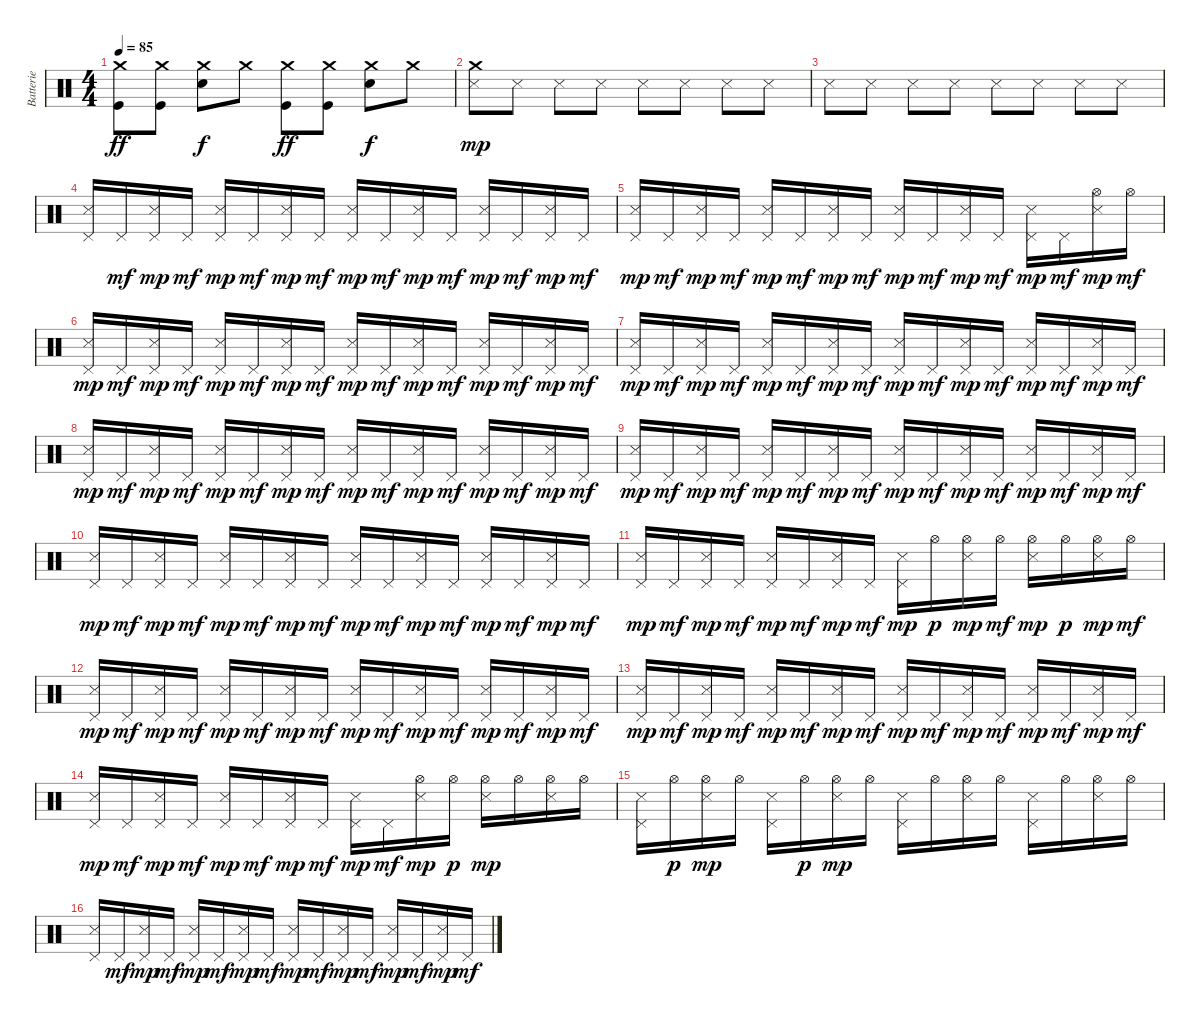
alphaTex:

\track ("Batterie" "Batterie") {instrument percussion}
\staff {score}
\articulation defaults
\ts (4 4)
\tempo 85
\clef neutral
\ks c
("Crash medium (hit)" "Kick (hit)").8{dy ff} ("Crash medium (hit)" "Kick (hit)").8 ("Crash medium (hit)" "Snare (hit) 2").8{dy f} "Crash medium (hit)".8 ("Crash medium (hit)" "Kick (hit)").8{dy ff} ("Crash medium (hit)" "Kick (hit)").8 ("Crash medium (hit)" "Snare (hit) 2").8{dy f} "Crash medium (hit)".8 |
("Crash medium (hit)" "Snare (side stick) 3").8{dy mp} "Snare (side stick) 3".8 "Snare (side stick) 3".8 "Snare (side stick) 3".8 "Snare (side stick) 3".8 "Snare (side stick) 3".8 "Snare (side stick) 3".8 "Snare (side stick) 3".8 |
"Snare (side stick) 3".8 "Snare (side stick) 3".8 "Snare (side stick) 3".8 "Snare (side stick) 3".8 "Snare (side stick) 3".8 "Snare (side stick) 3".8 "Snare (side stick) 3".8 "Snare (side stick) 3".8 |
("Pedal Hi-Hat (hit)" "Snare (side stick) 3").16 "Pedal Hi-Hat (hit)".16{dy mf} ("Pedal Hi-Hat (hit)" "Snare (side stick) 3").16{dy mp} "Pedal Hi-Hat (hit)".16{dy mf} ("Pedal Hi-Hat (hit)" "Snare (side stick) 3").16{dy mp} "Pedal Hi-Hat (hit)".16{dy mf} ("Pedal Hi-Hat (hit)" "Snare (side stick) 3").16{dy mp} "Pedal Hi-Hat (hit)".16{dy mf} ("Pedal Hi-Hat (hit)" "Snare (side stick) 3").16{dy mp} "Pedal Hi-Hat (hit)".16{dy mf} ("Pedal Hi-Hat (hit)" "Snare (side stick) 3").16{dy mp} "Pedal Hi-Hat (hit)".16{dy mf} ("Pedal Hi-Hat (hit)" "Snare (side stick) 3").16{dy mp} "Pedal Hi-Hat (hit)".16{dy mf} ("Pedal Hi-Hat (hit)" "Snare (side stick) 3").16{dy mp} "Pedal Hi-Hat (hit)".16{dy mf} |
("Pedal Hi-Hat (hit)" "Snare (side stick) 3").16{dy mp} "Pedal Hi-Hat (hit)".16{dy mf} ("Pedal Hi-Hat (hit)" "Snare (side stick) 3").16{dy mp} "Pedal Hi-Hat (hit)".16{dy mf} ("Pedal Hi-Hat (hit)" "Snare (side stick) 3").16{dy mp} "Pedal Hi-Hat (hit)".16{dy mf} ("Pedal Hi-Hat (hit)" "Snare (side stick) 3").16{dy mp} "Pedal Hi-Hat (hit)".16{dy mf} ("Pedal Hi-Hat (hit)" "Snare (side stick) 3").16{dy mp} "Pedal Hi-Hat (hit)".16{dy mf} ("Pedal Hi-Hat (hit)" "Snare (side stick) 3").16{dy mp} "Pedal Hi-Hat (hit)".16{dy mf} ("Pedal Hi-Hat (hit)" "Snare (side stick) 3").16{dy mp} "Pedal Hi-Hat (hit)".16{dy mf} ("Hi-Hat (open)" "Snare (side stick) 3").16{dy mp} "Hi-Hat (open)".16{dy mf} |
("Pedal Hi-Hat (hit)" "Snare (side stick) 3").16{dy mp} "Pedal Hi-Hat (hit)".16{dy mf} ("Pedal Hi-Hat (hit)" "Snare (side stick) 3").16{dy mp} "Pedal Hi-Hat (hit)".16{dy mf} ("Pedal Hi-Hat (hit)" "Snare (side stick) 3").16{dy mp} "Pedal Hi-Hat (hit)".16{dy mf} ("Pedal Hi-Hat (hit)" "Snare (side stick) 3").16{dy mp} "Pedal Hi-Hat (hit)".16{dy mf} ("Pedal Hi-Hat (hit)" "Snare (side stick) 3").16{dy mp} "Pedal Hi-Hat (hit)".16{dy mf} ("Pedal Hi-Hat (hit)" "Snare (side stick) 3").16{dy mp} "Pedal Hi-Hat (hit)".16{dy mf} ("Pedal Hi-Hat (hit)" "Snare (side stick) 3").16{dy mp} "Pedal Hi-Hat (hit)".16{dy mf} ("Pedal Hi-Hat (hit)" "Snare (side stick) 3").16{dy mp} "Pedal Hi-Hat (hit)".16{dy mf} |
("Pedal Hi-Hat (hit)" "Snare (side stick) 3").16{dy mp} "Pedal Hi-Hat (hit)".16{dy mf} ("Pedal Hi-Hat (hit)" "Snare (side stick) 3").16{dy mp} "Pedal Hi-Hat (hit)".16{dy mf} ("Pedal Hi-Hat (hit)" "Snare (side stick) 3").16{dy mp} "Pedal Hi-Hat (hit)".16{dy mf} ("Pedal Hi-Hat (hit)" "Snare (side stick) 3").16{dy mp} "Pedal Hi-Hat (hit)".16{dy mf} ("Pedal Hi-Hat (hit)" "Snare (side stick) 3").16{dy mp} "Pedal Hi-Hat (hit)".16{dy mf} ("Pedal Hi-Hat (hit)" "Snare (side stick) 3").16{dy mp} "Pedal Hi-Hat (hit)".16{dy mf} ("Pedal Hi-Hat (hit)" "Snare (side stick) 3").16{dy mp} "Pedal Hi-Hat (hit)".16{dy mf} ("Pedal Hi-Hat (hit)" "Snare (side stick) 3").16{dy mp} "Pedal Hi-Hat (hit)".16{dy mf} |
("Pedal Hi-Hat (hit)" "Snare (side stick) 3").16{dy mp} "Pedal Hi-Hat (hit)".16{dy mf} ("Pedal Hi-Hat (hit)" "Snare (side stick) 3").16{dy mp} "Pedal Hi-Hat (hit)".16{dy mf} ("Pedal Hi-Hat (hit)" "Snare (side stick) 3").16{dy mp} "Pedal Hi-Hat (hit)".16{dy mf} ("Pedal Hi-Hat (hit)" "Snare (side stick) 3").16{dy mp} "Pedal Hi-Hat (hit)".16{dy mf} ("Pedal Hi-Hat (hit)" "Snare (side stick) 3").16{dy mp} "Pedal Hi-Hat (hit)".16{dy mf} ("Pedal Hi-Hat (hit)" "Snare (side stick) 3").16{dy mp} "Pedal Hi-Hat (hit)".16{dy mf} ("Pedal Hi-Hat (hit)" "Snare (side stick) 3").16{dy mp} "Pedal Hi-Hat (hit)".16{dy mf} ("Pedal Hi-Hat (hit)" "Snare (side stick) 3").16{dy mp} "Pedal Hi-Hat (hit)".16{dy mf} |
("Pedal Hi-Hat (hit)" "Snare (side stick) 3").16{dy mp} "Pedal Hi-Hat (hit)".16{dy mf} ("Pedal Hi-Hat (hit)" "Snare (side stick) 3").16{dy mp} "Pedal Hi-Hat (hit)".16{dy mf} ("Pedal Hi-Hat (hit)" "Snare (side stick) 3").16{dy mp} "Pedal Hi-Hat (hit)".16{dy mf} ("Pedal Hi-Hat (hit)" "Snare (side stick) 3").16{dy mp} "Pedal Hi-Hat (hit)".16{dy mf} ("Pedal Hi-Hat (hit)" "Snare (side stick) 3").16{dy mp} "Pedal Hi-Hat (hit)".16{dy mf} ("Pedal Hi-Hat (hit)" "Snare (side stick) 3").16{dy mp} "Pedal Hi-Hat (hit)".16{dy mf} ("Pedal Hi-Hat (hit)" "Snare (side stick) 3").16{dy mp} "Pedal Hi-Hat (hit)".16{dy mf} ("Pedal Hi-Hat (hit)" "Snare (side stick) 3").16{dy mp} "Pedal Hi-Hat (hit)".16{dy mf} |
("Pedal Hi-Hat (hit)" "Snare (side stick) 3").16{dy mp} "Pedal Hi-Hat (hit)".16{dy mf} ("Pedal Hi-Hat (hit)" "Snare (side stick) 3").16{dy mp} "Pedal Hi-Hat (hit)".16{dy mf} ("Pedal Hi-Hat (hit)" "Snare (side stick) 3").16{dy mp} "Pedal Hi-Hat (hit)".16{dy mf} ("Pedal Hi-Hat (hit)" "Snare (side stick) 3").16{dy mp} "Pedal Hi-Hat (hit)".16{dy mf} ("Pedal Hi-Hat (hit)" "Snare (side stick) 3").16{dy mp} "Pedal Hi-Hat (hit)".16{dy mf} ("Pedal Hi-Hat (hit)" "Snare (side stick) 3").16{dy mp} "Pedal Hi-Hat (hit)".16{dy mf} ("Pedal Hi-Hat (hit)" "Snare (side stick) 3").16{dy mp} "Pedal Hi-Hat (hit)".16{dy mf} ("Pedal Hi-Hat (hit)" "Snare (side stick) 3").16{dy mp} "Pedal Hi-Hat (hit)".16{dy mf} |
("Pedal Hi-Hat (hit)" "Snare (side stick) 3").16{dy mp} "Pedal Hi-Hat (hit)".16{dy mf} ("Pedal Hi-Hat (hit)" "Snare (side stick) 3").16{dy mp} "Pedal Hi-Hat (hit)".16{dy mf} ("Pedal Hi-Hat (hit)" "Snare (side stick) 3").16{dy mp} "Pedal Hi-Hat (hit)".16{dy mf} ("Pedal Hi-Hat (hit)" "Snare (side stick) 3").16{dy mp} "Pedal Hi-Hat (hit)".16{dy mf} ("Pedal Hi-Hat (hit)" "Snare (side stick) 3").16{dy mp} "Hi-Hat (open)".16{dy p} ("Hi-Hat (open)" "Snare (side stick) 3").16{dy mp} "Hi-Hat (open)".16{dy mf} ("Hi-Hat (open)" "Snare (side stick) 3").16{dy mp} "Hi-Hat (open)".16{dy p} ("Hi-Hat (open)" "Snare (side stick) 3").16{dy mp} "Hi-Hat (open)".16{dy mf} |
("Pedal Hi-Hat (hit)" "Snare (side stick) 3").16{dy mp} "Pedal Hi-Hat (hit)".16{dy mf} ("Pedal Hi-Hat (hit)" "Snare (side stick) 3").16{dy mp} "Pedal Hi-Hat (hit)".16{dy mf} ("Pedal Hi-Hat (hit)" "Snare (side stick) 3").16{dy mp} "Pedal Hi-Hat (hit)".16{dy mf} ("Pedal Hi-Hat (hit)" "Snare (side stick) 3").16{dy mp} "Pedal Hi-Hat (hit)".16{dy mf} ("Pedal Hi-Hat (hit)" "Snare (side stick) 3").16{dy mp} "Pedal Hi-Hat (hit)".16{dy mf} ("Pedal Hi-Hat (hit)" "Snare (side stick) 3").16{dy mp} "Pedal Hi-Hat (hit)".16{dy mf} ("Pedal Hi-Hat (hit)" "Snare (side stick) 3").16{dy mp} "Pedal Hi-Hat (hit)".16{dy mf} ("Pedal Hi-Hat (hit)" "Snare (side stick) 3").16{dy mp} "Pedal Hi-Hat (hit)".16{dy mf} |
("Pedal Hi-Hat (hit)" "Snare (side stick) 3").16{dy mp} "Pedal Hi-Hat (hit)".16{dy mf} ("Pedal Hi-Hat (hit)" "Snare (side stick) 3").16{dy mp} "Pedal Hi-Hat (hit)".16{dy mf} ("Pedal Hi-Hat (hit)" "Snare (side stick) 3").16{dy mp} "Pedal Hi-Hat (hit)".16{dy mf} ("Pedal Hi-Hat (hit)" "Snare (side stick) 3").16{dy mp} "Pedal Hi-Hat (hit)".16{dy mf} ("Pedal Hi-Hat (hit)" "Snare (side stick) 3").16{dy mp} "Pedal Hi-Hat (hit)".16{dy mf} ("Pedal Hi-Hat (hit)" "Snare (side stick) 3").16{dy mp} "Pedal Hi-Hat (hit)".16{dy mf} ("Pedal Hi-Hat (hit)" "Snare (side stick) 3").16{dy mp} "Pedal Hi-Hat (hit)".16{dy mf} ("Pedal Hi-Hat (hit)" "Snare (side stick) 3").16{dy mp} "Pedal Hi-Hat (hit)".16{dy mf} |
("Pedal Hi-Hat (hit)" "Snare (side stick) 3").16{dy mp} "Pedal Hi-Hat (hit)".16{dy mf} ("Pedal Hi-Hat (hit)" "Snare (side stick) 3").16{dy mp} "Pedal Hi-Hat (hit)".16{dy mf} ("Pedal Hi-Hat (hit)" "Snare (side stick) 3").16{dy mp} "Pedal Hi-Hat (hit)".16{dy mf} ("Pedal Hi-Hat (hit)" "Snare (side stick) 3").16{dy mp} "Pedal Hi-Hat (hit)".16{dy mf} ("Pedal Hi-Hat (hit)" "Snare (side stick) 3").16{dy mp} "Pedal Hi-Hat (hit)".16{dy mf} ("Hi-Hat (open)" "Snare (side stick) 3").16{dy mp} "Hi-Hat (open)".16{dy p} ("Hi-Hat (open)" "Snare (side stick) 3").16{dy mp} "Hi-Hat (open)".16 ("Hi-Hat (open)" "Snare (side stick) 3").16 "Hi-Hat (open)".16 |
("Pedal Hi-Hat (hit)" "Snare (side stick) 3").16 "Hi-Hat (open)".16{dy p} ("Hi-Hat (open)" "Snare (side stick) 3").16{dy mp} "Hi-Hat (open)".16 ("Pedal Hi-Hat (hit)" "Snare (side stick) 3").16 "Hi-Hat (open)".16{dy p} ("Hi-Hat (open)" "Snare (side stick) 3").16{dy mp} "Hi-Hat (open)".16 ("Pedal Hi-Hat (hit)" "Snare (side stick) 3").16 "Hi-Hat (open)".16 ("Hi-Hat (open)" "Snare (side stick) 3").16 "Hi-Hat (open)".16 ("Pedal Hi-Hat (hit)" "Snare (side stick) 3").16 "Hi-Hat (open)".16 ("Hi-Hat (open)" "Snare (side stick) 3").16 "Hi-Hat (open)".16 |
("Pedal Hi-Hat (hit)" "Snare (side stick) 3").16 "Pedal Hi-Hat (hit)".16{dy mf} ("Pedal Hi-Hat (hit)" "Snare (side stick) 3").16{dy mp} "Pedal Hi-Hat (hit)".16{dy mf} ("Pedal Hi-Hat (hit)" "Snare (side stick) 3").16{dy mp} "Pedal Hi-Hat (hit)".16{dy mf} ("Pedal Hi-Hat (hit)" "Snare (side stick) 3").16{dy mp} "Pedal Hi-Hat (hit)".16{dy mf} ("Pedal Hi-Hat (hit)" "Snare (side stick) 3").16{dy mp} "Pedal Hi-Hat (hit)".16{dy mf} ("Pedal Hi-Hat (hit)" "Snare (side stick) 3").16{dy mp} "Pedal Hi-Hat (hit)".16{dy mf} ("Pedal Hi-Hat (hit)" "Snare (side stick) 3").16{dy mp} "Pedal Hi-Hat (hit)".16{dy mf} ("Pedal Hi-Hat (hit)" "Snare (side stick) 3").16{dy mp} "Pedal Hi-Hat (hit)".16{dy mf}
